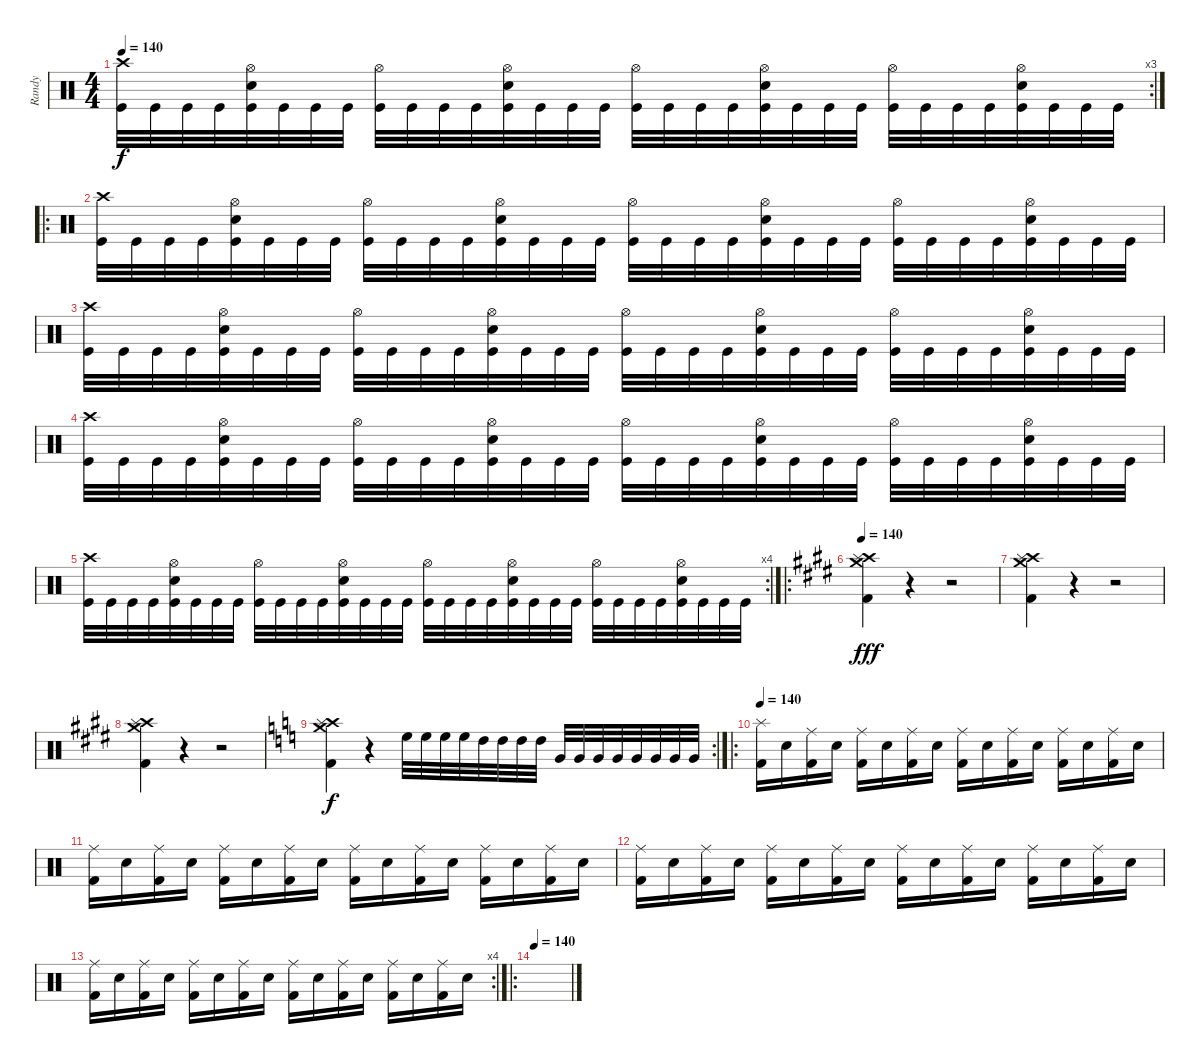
\track ("Randy" "Randy") {instrument percussion}
\staff {score}
\articulation defaults
\rc 3
\ts (4 4)
\tempo 140
\clef neutral
\ks c
("Kick (hit)" "Crash high (hit)").32{dy f} "Kick (hit)".32 "Kick (hit)".32 "Kick (hit)".32 ("Kick (hit)" "Snare (hit) 2" "Hi-Hat (open)").32 "Kick (hit)".32 "Kick (hit)".32 "Kick (hit)".32 ("Kick (hit)" "Hi-Hat (open)").32 "Kick (hit)".32 "Kick (hit)".32 "Kick (hit)".32 ("Kick (hit)" "Snare (hit) 2" "Hi-Hat (open)").32 "Kick (hit)".32 "Kick (hit)".32 "Kick (hit)".32 ("Kick (hit)" "Hi-Hat (open)").32 "Kick (hit)".32 "Kick (hit)".32 "Kick (hit)".32 ("Kick (hit)" "Snare (hit) 2" "Hi-Hat (open)").32 "Kick (hit)".32 "Kick (hit)".32 "Kick (hit)".32 ("Kick (hit)" "Hi-Hat (open)").32 "Kick (hit)".32 "Kick (hit)".32 "Kick (hit)".32 ("Kick (hit)" "Snare (hit) 2" "Hi-Hat (open)").32 "Kick (hit)".32 "Kick (hit)".32 "Kick (hit)".32 |
\ro
("Kick (hit)" "Crash high (hit)").32 "Kick (hit)".32 "Kick (hit)".32 "Kick (hit)".32 ("Kick (hit)" "Snare (hit) 2" "Hi-Hat (open)").32 "Kick (hit)".32 "Kick (hit)".32 "Kick (hit)".32 ("Kick (hit)" "Hi-Hat (open)").32 "Kick (hit)".32 "Kick (hit)".32 "Kick (hit)".32 ("Kick (hit)" "Snare (hit) 2" "Hi-Hat (open)").32 "Kick (hit)".32 "Kick (hit)".32 "Kick (hit)".32 ("Kick (hit)" "Hi-Hat (open)").32 "Kick (hit)".32 "Kick (hit)".32 "Kick (hit)".32 ("Kick (hit)" "Snare (hit) 2" "Hi-Hat (open)").32 "Kick (hit)".32 "Kick (hit)".32 "Kick (hit)".32 ("Kick (hit)" "Hi-Hat (open)").32 "Kick (hit)".32 "Kick (hit)".32 "Kick (hit)".32 ("Kick (hit)" "Snare (hit) 2" "Hi-Hat (open)").32 "Kick (hit)".32 "Kick (hit)".32 "Kick (hit)".32 |
("Kick (hit)" "Crash high (hit)").32 "Kick (hit)".32 "Kick (hit)".32 "Kick (hit)".32 ("Kick (hit)" "Snare (hit) 2" "Hi-Hat (open)").32 "Kick (hit)".32 "Kick (hit)".32 "Kick (hit)".32 ("Kick (hit)" "Hi-Hat (open)").32 "Kick (hit)".32 "Kick (hit)".32 "Kick (hit)".32 ("Kick (hit)" "Snare (hit) 2" "Hi-Hat (open)").32 "Kick (hit)".32 "Kick (hit)".32 "Kick (hit)".32 ("Kick (hit)" "Hi-Hat (open)").32 "Kick (hit)".32 "Kick (hit)".32 "Kick (hit)".32 ("Kick (hit)" "Snare (hit) 2" "Hi-Hat (open)").32 "Kick (hit)".32 "Kick (hit)".32 "Kick (hit)".32 ("Kick (hit)" "Hi-Hat (open)").32 "Kick (hit)".32 "Kick (hit)".32 "Kick (hit)".32 ("Kick (hit)" "Snare (hit) 2" "Hi-Hat (open)").32 "Kick (hit)".32 "Kick (hit)".32 "Kick (hit)".32 |
("Kick (hit)" "Crash high (hit)").32 "Kick (hit)".32 "Kick (hit)".32 "Kick (hit)".32 ("Kick (hit)" "Snare (hit) 2" "Hi-Hat (open)").32 "Kick (hit)".32 "Kick (hit)".32 "Kick (hit)".32 ("Kick (hit)" "Hi-Hat (open)").32 "Kick (hit)".32 "Kick (hit)".32 "Kick (hit)".32 ("Kick (hit)" "Snare (hit) 2" "Hi-Hat (open)").32 "Kick (hit)".32 "Kick (hit)".32 "Kick (hit)".32 ("Kick (hit)" "Hi-Hat (open)").32 "Kick (hit)".32 "Kick (hit)".32 "Kick (hit)".32 ("Kick (hit)" "Snare (hit) 2" "Hi-Hat (open)").32 "Kick (hit)".32 "Kick (hit)".32 "Kick (hit)".32 ("Kick (hit)" "Hi-Hat (open)").32 "Kick (hit)".32 "Kick (hit)".32 "Kick (hit)".32 ("Kick (hit)" "Snare (hit) 2" "Hi-Hat (open)").32 "Kick (hit)".32 "Kick (hit)".32 "Kick (hit)".32 |
\rc 4
("Kick (hit)" "Crash high (hit)").32 "Kick (hit)".32 "Kick (hit)".32 "Kick (hit)".32 ("Kick (hit)" "Snare (hit) 2" "Hi-Hat (open)").32 "Kick (hit)".32 "Kick (hit)".32 "Kick (hit)".32 ("Kick (hit)" "Hi-Hat (open)").32 "Kick (hit)".32 "Kick (hit)".32 "Kick (hit)".32 ("Kick (hit)" "Snare (hit) 2" "Hi-Hat (open)").32 "Kick (hit)".32 "Kick (hit)".32 "Kick (hit)".32 ("Kick (hit)" "Hi-Hat (open)").32 "Kick (hit)".32 "Kick (hit)".32 "Kick (hit)".32 ("Kick (hit)" "Snare (hit) 2" "Hi-Hat (open)").32 "Kick (hit)".32 "Kick (hit)".32 "Kick (hit)".32 ("Kick (hit)" "Hi-Hat (open)").32 "Kick (hit)".32 "Kick (hit)".32 "Kick (hit)".32 ("Kick (hit)" "Snare (hit) 2" "Hi-Hat (open)").32 "Kick (hit)".32 "Kick (hit)".32 "Kick (hit)".32 |
\ro
\tempo 140
\ks e
("Crash high (hit)" "Splash (hit)" "Kick (hit) 2" "Crash medium (hit)").4{dy fff} r.4 r.2 |
("Crash high (hit)" "Splash (hit)" "Kick (hit) 2" "Crash medium (hit)").4 r.4 r.2 |
("Crash high (hit)" "Splash (hit)" "Kick (hit) 2" "Crash medium (hit)").4 r.4 r.2 |
\rc 2
\ks c
("Crash high (hit)" "Splash (hit)" "Kick (hit) 2" "Crash medium (hit)").4{dy f} r.4 "High Floor Tom (hit)".32 "High Floor Tom (hit)".32 "High Floor Tom (hit)".32 "High Floor Tom (hit)".32 "High Tom (hit)".32 "High Tom (hit)".32 "High Tom (hit)".32 "High Tom (hit)".32 "Very Low Tom (hit)".32 "Very Low Tom (hit)".32 "Very Low Tom (hit)".32 "Very Low Tom (hit)".32 "Very Low Tom (hit)".32 "Very Low Tom (hit)".32 "Very Low Tom (hit)".32 "Very Low Tom (hit)".32 |
\ro
\tempo 140
("Splash (hit)" "Kick (hit) 2").16 "Snare (hit) 2".16 ("Ride (middle)" "Kick (hit) 2").16 "Snare (hit) 2".16 ("Ride (middle)" "Kick (hit) 2").16 "Snare (hit) 2".16 ("Ride (middle)" "Kick (hit) 2").16 "Snare (hit) 2".16 ("Ride (middle)" "Kick (hit) 2").16 "Snare (hit) 2".16 ("Ride (middle)" "Kick (hit) 2").16 "Snare (hit) 2".16 ("Ride (middle)" "Kick (hit) 2").16 "Snare (hit) 2".16 ("Ride (middle)" "Kick (hit) 2").16 "Snare (hit) 2".16 |
("Ride (middle)" "Kick (hit) 2").16 "Snare (hit) 2".16 ("Ride (middle)" "Kick (hit) 2").16 "Snare (hit) 2".16 ("Ride (middle)" "Kick (hit) 2").16 "Snare (hit) 2".16 ("Ride (middle)" "Kick (hit) 2").16 "Snare (hit) 2".16 ("Ride (middle)" "Kick (hit) 2").16 "Snare (hit) 2".16 ("Ride (middle)" "Kick (hit) 2").16 "Snare (hit) 2".16 ("Ride (middle)" "Kick (hit) 2").16 "Snare (hit) 2".16 ("Ride (middle)" "Kick (hit) 2").16 "Snare (hit) 2".16 |
("Ride (middle)" "Kick (hit) 2").16 "Snare (hit) 2".16 ("Ride (middle)" "Kick (hit) 2").16 "Snare (hit) 2".16 ("Ride (middle)" "Kick (hit) 2").16 "Snare (hit) 2".16 ("Ride (middle)" "Kick (hit) 2").16 "Snare (hit) 2".16 ("Ride (middle)" "Kick (hit) 2").16 "Snare (hit) 2".16 ("Ride (middle)" "Kick (hit) 2").16 "Snare (hit) 2".16 ("Ride (middle)" "Kick (hit) 2").16 "Snare (hit) 2".16 ("Ride (middle)" "Kick (hit) 2").16 "Snare (hit) 2".16 |
\rc 4
("Ride (middle)" "Kick (hit) 2").16 "Snare (hit) 2".16 ("Ride (middle)" "Kick (hit) 2").16 "Snare (hit) 2".16 ("Ride (middle)" "Kick (hit) 2").16 "Snare (hit) 2".16 ("Ride (middle)" "Kick (hit) 2").16 "Snare (hit) 2".16 ("Ride (middle)" "Kick (hit) 2").16 "Snare (hit) 2".16 ("Ride (middle)" "Kick (hit) 2").16 "Snare (hit) 2".16 ("Ride (middle)" "Kick (hit) 2").16 "Snare (hit) 2".16 ("Ride (middle)" "Kick (hit) 2").16 "Snare (hit) 2".16 |
\ro
\tempo 140
